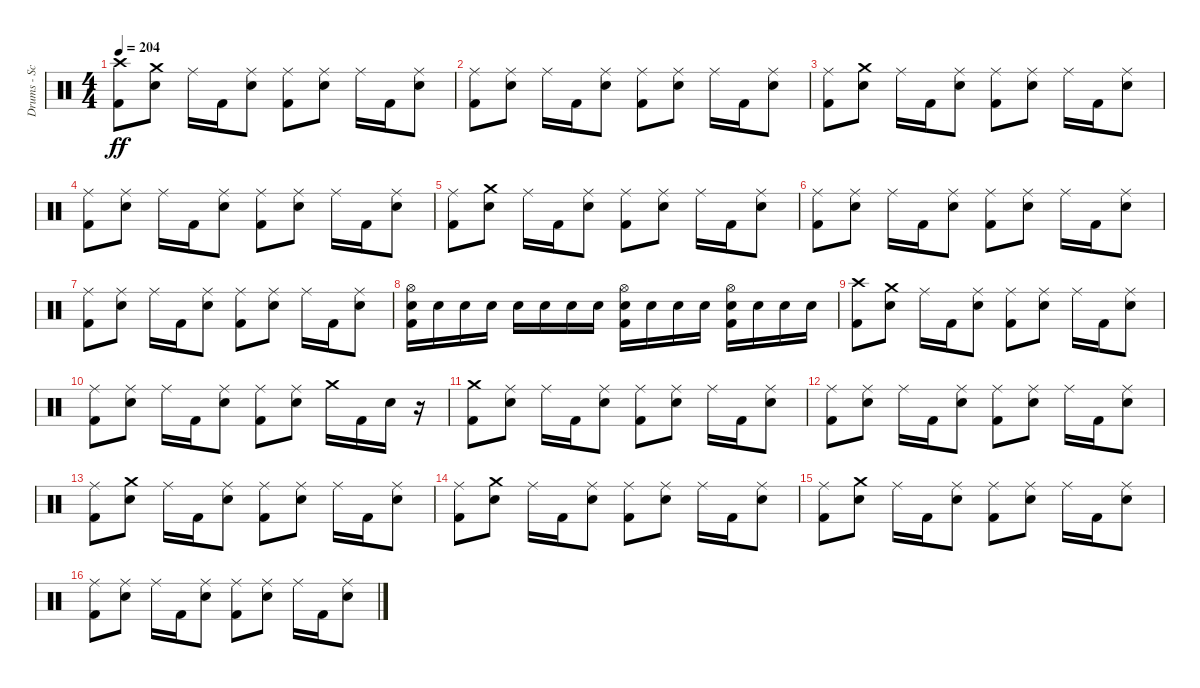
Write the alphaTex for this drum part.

\track ("Drums - Scott" "Drums - Sc") {instrument percussion}
\staff {score}
\articulation defaults
\ts (4 4)
\tempo 204
\clef neutral
\ks c
("Kick (hit) 2" "Crash high (hit)").8{dy ff} ("Electric Snare (hit)" "Crash medium (hit)").8 "Ride (middle)".16 "Kick (hit) 2".16 ("Electric Snare (hit)" "Ride (middle)").8 ("Kick (hit) 2" "Ride (middle)").8 ("Electric Snare (hit)" "Ride (middle)").8 "Ride (middle)".16 "Kick (hit) 2".16 ("Electric Snare (hit)" "Ride (middle)").8 |
("Kick (hit) 2" "Ride (middle)").8 ("Electric Snare (hit)" "Ride (middle)").8 "Ride (middle)".16 "Kick (hit) 2".16 ("Electric Snare (hit)" "Ride (middle)").8 ("Kick (hit) 2" "Ride (middle)").8 ("Electric Snare (hit)" "Ride (middle)").8 "Ride (middle)".16 "Kick (hit) 2".16 ("Electric Snare (hit)" "Ride (middle)").8 |
("Kick (hit) 2" "Ride (middle)").8 ("Electric Snare (hit)" "Crash medium (hit)").8 "Ride (middle)".16 "Kick (hit) 2".16 ("Electric Snare (hit)" "Ride (middle)").8 ("Kick (hit) 2" "Ride (middle)").8 ("Electric Snare (hit)" "Ride (middle)").8 "Ride (middle)".16 "Kick (hit) 2".16 ("Electric Snare (hit)" "Ride (middle)").8 |
("Kick (hit) 2" "Ride (middle)").8 ("Electric Snare (hit)" "Ride (middle)").8 "Ride (middle)".16 "Kick (hit) 2".16 ("Electric Snare (hit)" "Ride (middle)").8 ("Kick (hit) 2" "Ride (middle)").8 ("Electric Snare (hit)" "Ride (middle)").8 "Ride (middle)".16 "Kick (hit) 2".16 ("Electric Snare (hit)" "Ride (middle)").8 |
("Kick (hit) 2" "Ride (middle)").8 ("Electric Snare (hit)" "Crash medium (hit)").8 "Ride (middle)".16 "Kick (hit) 2".16 ("Electric Snare (hit)" "Ride (middle)").8 ("Kick (hit) 2" "Ride (middle)").8 ("Electric Snare (hit)" "Ride (middle)").8 "Ride (middle)".16 "Kick (hit) 2".16 ("Electric Snare (hit)" "Ride (middle)").8 |
("Kick (hit) 2" "Ride (middle)").8 ("Electric Snare (hit)" "Ride (middle)").8 "Ride (middle)".16 "Kick (hit) 2".16 ("Electric Snare (hit)" "Ride (middle)").8 ("Kick (hit) 2" "Ride (middle)").8 ("Electric Snare (hit)" "Ride (middle)").8 "Ride (middle)".16 "Kick (hit) 2".16 ("Electric Snare (hit)" "Ride (middle)").8 |
("Kick (hit) 2" "Ride (middle)").8 ("Electric Snare (hit)" "Ride (middle)").8 "Ride (middle)".16 "Kick (hit) 2".16 ("Electric Snare (hit)" "Ride (middle)").8 ("Kick (hit) 2" "Ride (middle)").8 ("Electric Snare (hit)" "Ride (middle)").8 "Ride (middle)".16 "Kick (hit) 2".16 ("Electric Snare (hit)" "Ride (middle)").8 |
("Kick (hit) 2" "Electric Snare (hit)" "Hi-Hat (open)").16 "Electric Snare (hit)".16 "Electric Snare (hit)".16 "Electric Snare (hit)".16 "Electric Snare (hit)".16 "Electric Snare (hit)".16 "Electric Snare (hit)".16 "Electric Snare (hit)".16 ("Kick (hit) 2" "Electric Snare (hit)" "Hi-Hat (open)").16 "Electric Snare (hit)".16 "Electric Snare (hit)".16 "Electric Snare (hit)".16 ("Kick (hit) 2" "Electric Snare (hit)" "Hi-Hat (open)").16 "Electric Snare (hit)".16 "Electric Snare (hit)".16 "Electric Snare (hit)".16 |
("Kick (hit) 2" "Crash high (hit)").8 ("Electric Snare (hit)" "Crash medium (hit)").8 "Ride (middle)".16 "Kick (hit) 2".16 ("Electric Snare (hit)" "Ride (middle)").8 ("Kick (hit) 2" "Ride (middle)").8 ("Electric Snare (hit)" "Ride (middle)").8 "Ride (middle)".16 "Kick (hit) 2".16 ("Electric Snare (hit)" "Ride (middle)").8 |
("Kick (hit) 2" "Ride (middle)").8 ("Electric Snare (hit)" "Ride (middle)").8 "Ride (middle)".16 "Kick (hit) 2".16 ("Electric Snare (hit)" "Ride (middle)").8 ("Kick (hit) 2" "Ride (middle)").8 ("Electric Snare (hit)" "Ride (middle)").8 "Crash medium (hit)".16 "Kick (hit) 2".16 "Electric Snare (hit)".16 r.16 |
("Kick (hit) 2" "Crash medium (hit)").8 ("Electric Snare (hit)" "Ride (middle)").8 "Ride (middle)".16 "Kick (hit) 2".16 ("Electric Snare (hit)" "Ride (middle)").8 ("Kick (hit) 2" "Ride (middle)").8 ("Electric Snare (hit)" "Ride (middle)").8 "Ride (middle)".16 "Kick (hit) 2".16 ("Electric Snare (hit)" "Ride (middle)").8 |
("Kick (hit) 2" "Ride (middle)").8 ("Electric Snare (hit)" "Ride (middle)").8 "Ride (middle)".16 "Kick (hit) 2".16 ("Electric Snare (hit)" "Ride (middle)").8 ("Kick (hit) 2" "Ride (middle)").8 ("Electric Snare (hit)" "Ride (middle)").8 "Ride (middle)".16 "Kick (hit) 2".16 ("Electric Snare (hit)" "Ride (middle)").8 |
("Kick (hit) 2" "Ride (middle)").8 ("Electric Snare (hit)" "Crash medium (hit)").8 "Ride (middle)".16 "Kick (hit) 2".16 ("Electric Snare (hit)" "Ride (middle)").8 ("Kick (hit) 2" "Ride (middle)").8 ("Electric Snare (hit)" "Ride (middle)").8 "Ride (middle)".16 "Kick (hit) 2".16 ("Electric Snare (hit)" "Ride (middle)").8 |
("Kick (hit) 2" "Ride (middle)").8 ("Electric Snare (hit)" "Crash medium (hit)").8 "Ride (middle)".16 "Kick (hit) 2".16 ("Electric Snare (hit)" "Ride (middle)").8 ("Kick (hit) 2" "Ride (middle)").8 ("Electric Snare (hit)" "Ride (middle)").8 "Ride (middle)".16 "Kick (hit) 2".16 ("Electric Snare (hit)" "Ride (middle)").8 |
("Kick (hit) 2" "Ride (middle)").8 ("Electric Snare (hit)" "Crash medium (hit)").8 "Ride (middle)".16 "Kick (hit) 2".16 ("Electric Snare (hit)" "Ride (middle)").8 ("Kick (hit) 2" "Ride (middle)").8 ("Electric Snare (hit)" "Ride (middle)").8 "Ride (middle)".16 "Kick (hit) 2".16 ("Electric Snare (hit)" "Ride (middle)").8 |
("Kick (hit) 2" "Ride (middle)").8 ("Electric Snare (hit)" "Ride (middle)").8 "Ride (middle)".16 "Kick (hit) 2".16 ("Electric Snare (hit)" "Ride (middle)").8 ("Kick (hit) 2" "Ride (middle)").8 ("Electric Snare (hit)" "Ride (middle)").8 "Ride (middle)".16 "Kick (hit) 2".16 ("Electric Snare (hit)" "Ride (middle)").8
